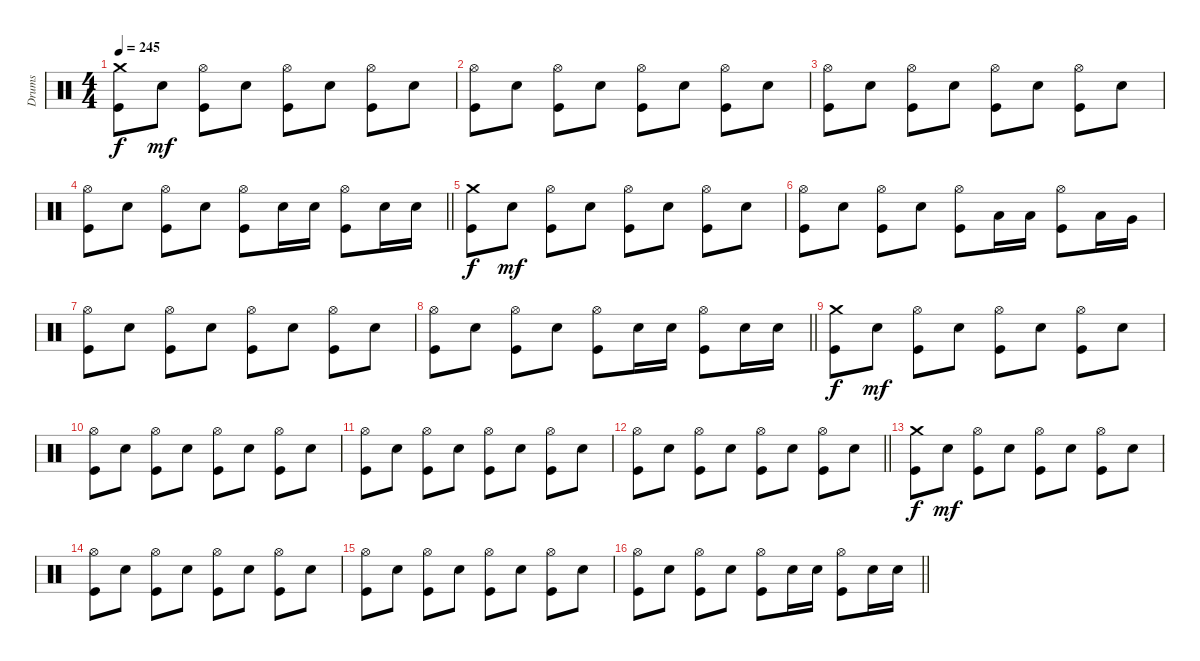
\track ("Drums" "Drums") {instrument percussion}
\staff {score}
\articulation defaults
\ts (4 4)
\section ("" "")
\tempo 245
\clef neutral
\ks c
("Crash medium (hit)" "Kick (hit)").8{dy f} "Snare (hit) 2".8{dy mf} ("Hi-Hat (open)" "Kick (hit)").8 "Snare (hit) 2".8 ("Hi-Hat (open)" "Kick (hit)").8 "Snare (hit) 2".8 ("Hi-Hat (open)" "Kick (hit)").8 "Snare (hit) 2".8 |
("Hi-Hat (open)" "Kick (hit)").8 "Snare (hit) 2".8 ("Hi-Hat (open)" "Kick (hit)").8 "Snare (hit) 2".8 ("Hi-Hat (open)" "Kick (hit)").8 "Snare (hit) 2".8 ("Hi-Hat (open)" "Kick (hit)").8 "Snare (hit) 2".8 |
("Hi-Hat (open)" "Kick (hit)").8 "Snare (hit) 2".8 ("Hi-Hat (open)" "Kick (hit)").8 "Snare (hit) 2".8 ("Hi-Hat (open)" "Kick (hit)").8 "Snare (hit) 2".8 ("Hi-Hat (open)" "Kick (hit)").8 "Snare (hit) 2".8 |
\barLineRight lightlight
("Hi-Hat (open)" "Kick (hit)").8 "Snare (hit) 2".8 ("Hi-Hat (open)" "Kick (hit)").8 "Snare (hit) 2".8 ("Hi-Hat (open)" "Kick (hit)").8 "Snare (hit) 2".16 "Snare (hit) 2".16 ("Hi-Hat (open)" "Kick (hit)").8 "Snare (hit) 2".16 "Snare (hit) 2".16 |
("Crash medium (hit)" "Kick (hit)").8{dy f} "Snare (hit) 2".8{dy mf} ("Hi-Hat (open)" "Kick (hit)").8 "Snare (hit) 2".8 ("Hi-Hat (open)" "Kick (hit)").8 "Snare (hit) 2".8 ("Hi-Hat (open)" "Kick (hit)").8 "Snare (hit) 2".8 |
("Hi-Hat (open)" "Kick (hit)").8 "Snare (hit) 2".8 ("Hi-Hat (open)" "Kick (hit)").8 "Snare (hit) 2".8 ("Hi-Hat (open)" "Kick (hit)").8 "Low Tom (hit)".16 "Low Tom (hit)".16 ("Hi-Hat (open)" "Kick (hit)").8 "Low Tom (hit)".16 "Very Low Tom (hit)".16 |
("Hi-Hat (open)" "Kick (hit)").8 "Snare (hit) 2".8 ("Hi-Hat (open)" "Kick (hit)").8 "Snare (hit) 2".8 ("Hi-Hat (open)" "Kick (hit)").8 "Snare (hit) 2".8 ("Hi-Hat (open)" "Kick (hit)").8 "Snare (hit) 2".8 |
\barLineRight lightlight
("Hi-Hat (open)" "Kick (hit)").8 "Snare (hit) 2".8 ("Hi-Hat (open)" "Kick (hit)").8 "Snare (hit) 2".8 ("Hi-Hat (open)" "Kick (hit)").8 "Snare (hit) 2".16 "Snare (hit) 2".16 ("Hi-Hat (open)" "Kick (hit)").8 "Snare (hit) 2".16 "Snare (hit) 2".16 |
("Crash medium (hit)" "Kick (hit)").8{dy f} "Snare (hit) 2".8{dy mf} ("Hi-Hat (open)" "Kick (hit)").8 "Snare (hit) 2".8 ("Hi-Hat (open)" "Kick (hit)").8 "Snare (hit) 2".8 ("Hi-Hat (open)" "Kick (hit)").8 "Snare (hit) 2".8 |
("Hi-Hat (open)" "Kick (hit)").8 "Snare (hit) 2".8 ("Hi-Hat (open)" "Kick (hit)").8 "Snare (hit) 2".8 ("Hi-Hat (open)" "Kick (hit)").8 "Snare (hit) 2".8 ("Hi-Hat (open)" "Kick (hit)").8 "Snare (hit) 2".8 |
("Hi-Hat (open)" "Kick (hit)").8 "Snare (hit) 2".8 ("Hi-Hat (open)" "Kick (hit)").8 "Snare (hit) 2".8 ("Hi-Hat (open)" "Kick (hit)").8 "Snare (hit) 2".8 ("Hi-Hat (open)" "Kick (hit)").8 "Snare (hit) 2".8 |
\barLineRight lightlight
("Hi-Hat (open)" "Kick (hit)").8 "Snare (hit) 2".8 ("Hi-Hat (open)" "Kick (hit)").8 "Snare (hit) 2".8 ("Hi-Hat (open)" "Kick (hit)").8 "Snare (hit) 2".8 ("Hi-Hat (open)" "Kick (hit)").8 "Snare (hit) 2".8 |
("Crash medium (hit)" "Kick (hit)").8{dy f} "Snare (hit) 2".8{dy mf} ("Hi-Hat (open)" "Kick (hit)").8 "Snare (hit) 2".8 ("Hi-Hat (open)" "Kick (hit)").8 "Snare (hit) 2".8 ("Hi-Hat (open)" "Kick (hit)").8 "Snare (hit) 2".8 |
("Hi-Hat (open)" "Kick (hit)").8 "Snare (hit) 2".8 ("Hi-Hat (open)" "Kick (hit)").8 "Snare (hit) 2".8 ("Hi-Hat (open)" "Kick (hit)").8 "Snare (hit) 2".8 ("Hi-Hat (open)" "Kick (hit)").8 "Snare (hit) 2".8 |
("Hi-Hat (open)" "Kick (hit)").8 "Snare (hit) 2".8 ("Hi-Hat (open)" "Kick (hit)").8 "Snare (hit) 2".8 ("Hi-Hat (open)" "Kick (hit)").8 "Snare (hit) 2".8 ("Hi-Hat (open)" "Kick (hit)").8 "Snare (hit) 2".8 |
\barLineRight lightlight
("Hi-Hat (open)" "Kick (hit)").8 "Snare (hit) 2".8 ("Hi-Hat (open)" "Kick (hit)").8 "Snare (hit) 2".8 ("Hi-Hat (open)" "Kick (hit)").8 "Snare (hit) 2".16 "Snare (hit) 2".16 ("Hi-Hat (open)" "Kick (hit)").8 "Snare (hit) 2".16 "Snare (hit) 2".16
